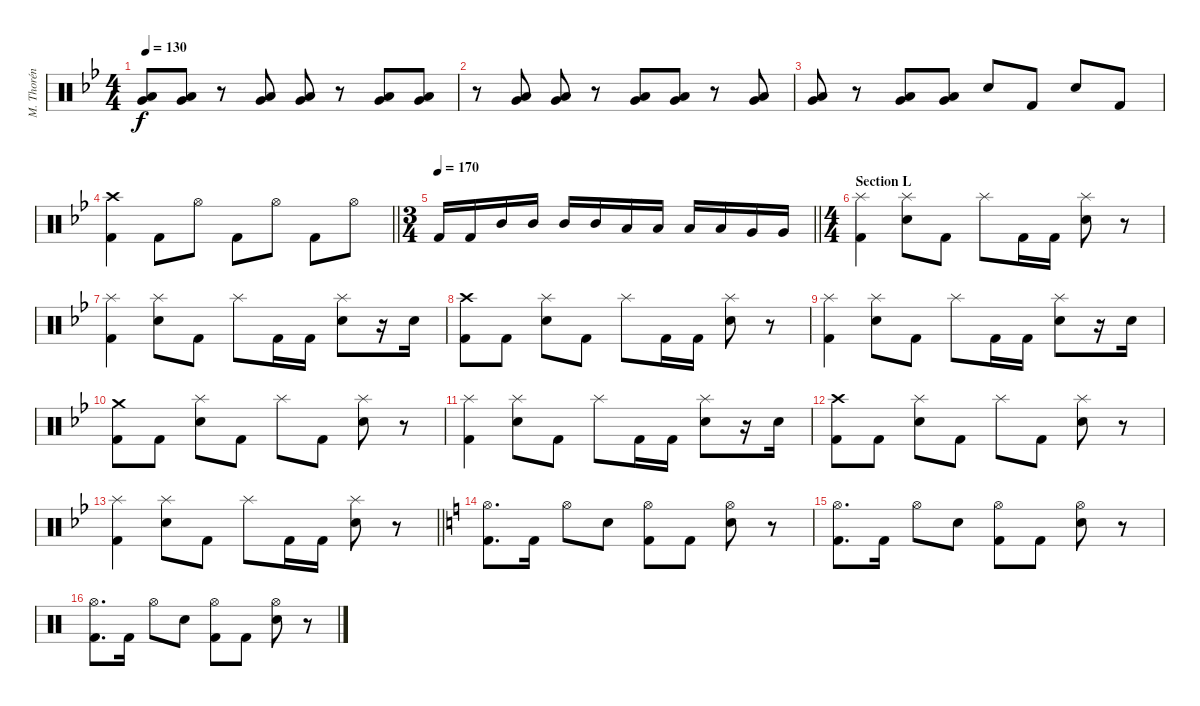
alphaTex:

\track ("M. Thorén (Drums)" "M. Thorén ") {instrument percussion}
\staff {score}
\articulation defaults
\ts (4 4)
\tempo 130
\clef neutral
\ks gminor
("Very Low Tom (hit)" "Low Floor Tom (hit)").8{dy f} ("Very Low Tom (hit)" "Low Floor Tom (hit)").8 r.8 ("Very Low Tom (hit)" "Low Floor Tom (hit)").8 ("Very Low Tom (hit)" "Low Floor Tom (hit)").8 r.8 ("Very Low Tom (hit)" "Low Floor Tom (hit)").8 ("Very Low Tom (hit)" "Low Floor Tom (hit)").8 |
r.8 ("Very Low Tom (hit)" "Low Floor Tom (hit)").8 ("Very Low Tom (hit)" "Low Floor Tom (hit)").8 r.8 ("Very Low Tom (hit)" "Low Floor Tom (hit)").8 ("Very Low Tom (hit)" "Low Floor Tom (hit)").8 r.8 ("Very Low Tom (hit)" "Low Floor Tom (hit)").8 |
("Very Low Tom (hit)" "Low Floor Tom (hit)").8 r.8 ("Very Low Tom (hit)" "Low Floor Tom (hit)").8 ("Very Low Tom (hit)" "Low Floor Tom (hit)").8 "Electric Snare (hit)".8 "Kick (hit) 2".8 "Electric Snare (hit)".8 "Kick (hit) 2".8 |
\barLineRight lightlight
("Crash high (hit)" "Kick (hit) 2").4 "Kick (hit) 2".8 "Hi-Hat (open)".8 "Kick (hit) 2".8 "Hi-Hat (open)".8 "Kick (hit) 2".8 "Hi-Hat (open)".8 |
\ts (3 4)
\tempo 170
\barLineRight lightlight "Kick (hit) 2".16 "Kick (hit) 2".16 "Mid Tom (hit)".16 "Mid Tom (hit)".16 "Mid Tom (hit)".16 "Mid Tom (hit)".16 "Low Tom (hit)".16 "Low Tom (hit)".16 "Low Tom (hit)".16 "Low Tom (hit)".16 "Very Low Tom (hit)".16 "Very Low Tom (hit)".16
|
\ts (4 4)
\section ("" "Section L")
("Splash (hit)" "Kick (hit) 2").4 ("Splash (hit)" "Electric Snare (hit)").8 "Kick (hit) 2".8 "Splash (hit)".8 "Kick (hit) 2".16 "Kick (hit) 2".16 ("Splash (hit)" "Electric Snare (hit)").8 r.8 |
("Splash (hit)" "Kick (hit) 2").4 ("Splash (hit)" "Electric Snare (hit)").8 "Kick (hit) 2".8 "Splash (hit)".8 "Kick (hit) 2".16 "Kick (hit) 2".16 ("Splash (hit)" "Electric Snare (hit)").8 r.16 "Electric Snare (hit)".16 |
("Crash high (hit)" "Kick (hit) 2").8 "Kick (hit) 2".8 ("Splash (hit)" "Electric Snare (hit)").8 "Kick (hit) 2".8 "Splash (hit)".8 "Kick (hit) 2".16 "Kick (hit) 2".16 ("Splash (hit)" "Electric Snare (hit)").8 r.8 |
("Splash (hit)" "Kick (hit) 2").4 ("Splash (hit)" "Electric Snare (hit)").8 "Kick (hit) 2".8 "Splash (hit)".8 "Kick (hit) 2".16 "Kick (hit) 2".16 ("Splash (hit)" "Electric Snare (hit)").8 r.16 "Electric Snare (hit)".16 |
("Crash medium (hit)" "Kick (hit) 2").8 "Kick (hit) 2".8 ("Splash (hit)" "Electric Snare (hit)").8 "Kick (hit) 2".8 "Splash (hit)".8 "Kick (hit) 2".8 ("Splash (hit)" "Electric Snare (hit)").8 r.8 |
("Splash (hit)" "Kick (hit) 2").4 ("Splash (hit)" "Electric Snare (hit)").8 "Kick (hit) 2".8 "Splash (hit)".8 "Kick (hit) 2".16 "Kick (hit) 2".16 ("Splash (hit)" "Electric Snare (hit)").8 r.16 "Electric Snare (hit)".16 |
("Crash high (hit)" "Kick (hit) 2").8 "Kick (hit) 2".8 ("Splash (hit)" "Electric Snare (hit)").8 "Kick (hit) 2".8 "Splash (hit)".8 "Kick (hit) 2".8 ("Splash (hit)" "Electric Snare (hit)").8 r.8 |
\barLineRight lightlight
("Splash (hit)" "Kick (hit) 2").4 ("Splash (hit)" "Electric Snare (hit)").8 "Kick (hit) 2".8 "Splash (hit)".8 "Kick (hit) 2".16 "Kick (hit) 2".16 ("Splash (hit)" "Electric Snare (hit)").8 r.8 |
\ks aminor
("Hi-Hat (open)" "Kick (hit) 2").8{d} "Kick (hit) 2".16 "Hi-Hat (open)".8 "Electric Snare (hit)".8 ("Hi-Hat (open)" "Kick (hit) 2").8 "Kick (hit) 2".8 ("Hi-Hat (open)" "Electric Snare (hit)").8 r.8 |
("Hi-Hat (open)" "Kick (hit) 2").8{d} "Kick (hit) 2".16 "Hi-Hat (open)".8 "Electric Snare (hit)".8 ("Hi-Hat (open)" "Kick (hit) 2").8 "Kick (hit) 2".8 ("Hi-Hat (open)" "Electric Snare (hit)").8 r.8 |
("Hi-Hat (open)" "Kick (hit) 2").8{d} "Kick (hit) 2".16 "Hi-Hat (open)".8 "Electric Snare (hit)".8 ("Hi-Hat (open)" "Kick (hit) 2").8 "Kick (hit) 2".8 ("Hi-Hat (open)" "Electric Snare (hit)").8 r.8
